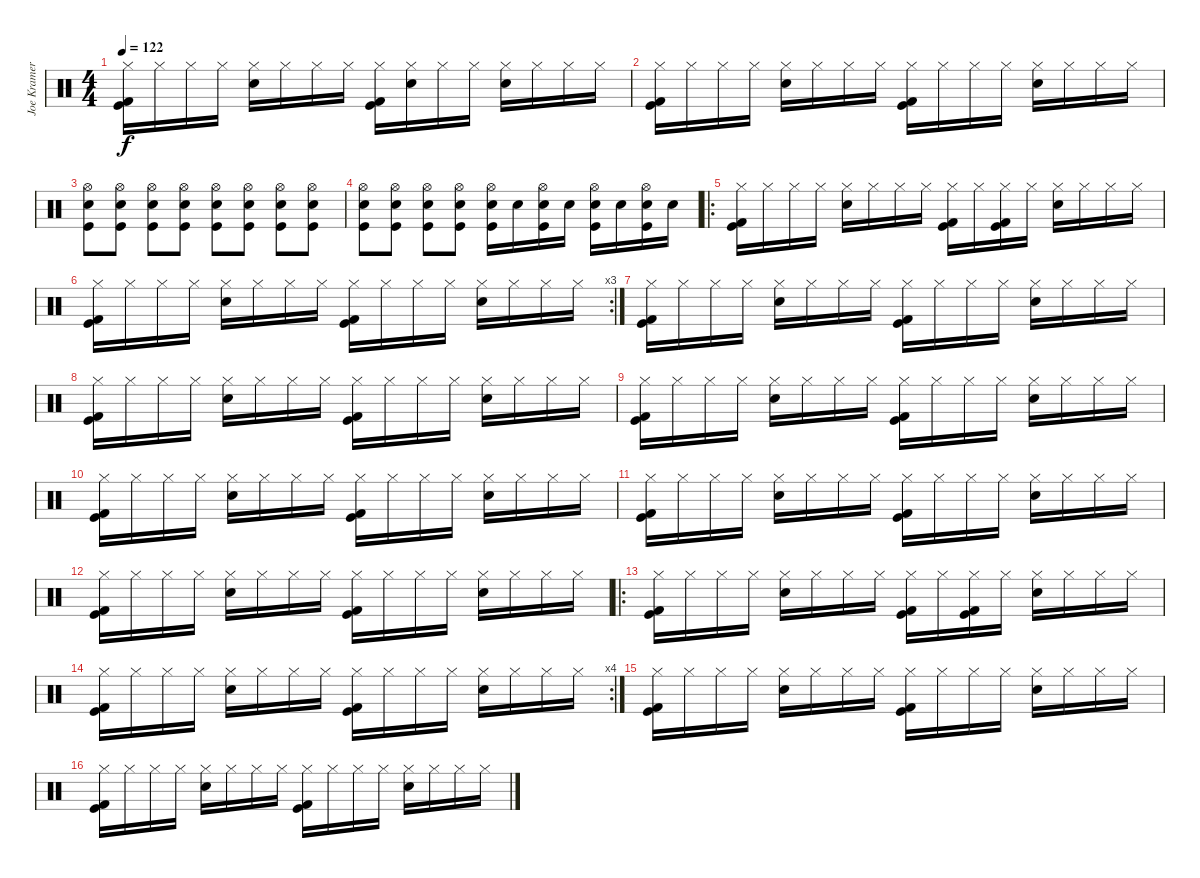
\track ("Joe Kramer" "Joe Kramer") {instrument percussion}
\staff {score}
\articulation defaults
\ts (4 4)
\tempo 122
\clef neutral
\ks c
("Hi-Hat (closed)" "Kick (hit)" "Kick (hit) 2").16{dy f} "Hi-Hat (closed)".16 "Hi-Hat (closed)".16 "Hi-Hat (closed)".16 ("Hi-Hat (closed)" "Snare (hit) 2").16 "Hi-Hat (closed)".16 "Hi-Hat (closed)".16 "Hi-Hat (closed)".16 ("Hi-Hat (closed)" "Kick (hit)" "Kick (hit) 2").16 ("Hi-Hat (closed)" "Snare (hit) 2").16 "Hi-Hat (closed)".16 "Hi-Hat (closed)".16 ("Hi-Hat (closed)" "Snare (hit) 2").16 "Hi-Hat (closed)".16 "Hi-Hat (closed)".16 "Hi-Hat (closed)".16 |
("Hi-Hat (closed)" "Kick (hit)" "Kick (hit) 2").16 "Hi-Hat (closed)".16 "Hi-Hat (closed)".16 "Hi-Hat (closed)".16 ("Hi-Hat (closed)" "Snare (hit) 2").16 "Hi-Hat (closed)".16 "Hi-Hat (closed)".16 "Hi-Hat (closed)".16 ("Hi-Hat (closed)" "Kick (hit)" "Kick (hit) 2").16 "Hi-Hat (closed)".16 "Hi-Hat (closed)".16 "Hi-Hat (closed)".16 ("Hi-Hat (closed)" "Snare (hit) 2").16 "Hi-Hat (closed)".16 "Hi-Hat (closed)".16 "Hi-Hat (closed)".16 |
("Kick (hit)" "Snare (hit) 2" "Hi-Hat (open)").8 ("Kick (hit)" "Snare (hit) 2" "Hi-Hat (open)").8 ("Kick (hit)" "Snare (hit) 2" "Hi-Hat (open)").8 ("Kick (hit)" "Snare (hit) 2" "Hi-Hat (open)").8 ("Kick (hit)" "Snare (hit) 2" "Hi-Hat (open)").8 ("Kick (hit)" "Snare (hit) 2" "Hi-Hat (open)").8 ("Kick (hit)" "Snare (hit) 2" "Hi-Hat (open)").8 ("Kick (hit)" "Snare (hit) 2" "Hi-Hat (open)").8 |
("Kick (hit)" "Snare (hit) 2" "Hi-Hat (open)").8 ("Kick (hit)" "Snare (hit) 2" "Hi-Hat (open)").8 ("Kick (hit)" "Snare (hit) 2" "Hi-Hat (open)").8 ("Kick (hit)" "Snare (hit) 2" "Hi-Hat (open)").8 ("Kick (hit)" "Snare (hit) 2" "Hi-Hat (open)").16 "Snare (hit) 2".16 ("Kick (hit)" "Snare (hit) 2" "Hi-Hat (open)").16 "Snare (hit) 2".16 ("Kick (hit)" "Snare (hit) 2" "Hi-Hat (open)").16 "Snare (hit) 2".16 ("Kick (hit)" "Snare (hit) 2" "Hi-Hat (open)").16 "Snare (hit) 2".16 |
\ro
("Hi-Hat (closed)" "Kick (hit)" "Kick (hit) 2").16 "Hi-Hat (closed)".16 "Hi-Hat (closed)".16 "Hi-Hat (closed)".16 ("Hi-Hat (closed)" "Snare (hit) 2").16 "Hi-Hat (closed)".16 "Hi-Hat (closed)".16 "Hi-Hat (closed)".16 ("Hi-Hat (closed)" "Kick (hit)" "Kick (hit) 2").16 "Hi-Hat (closed)".16 ("Hi-Hat (closed)" "Kick (hit)" "Kick (hit) 2").16 "Hi-Hat (closed)".16 ("Hi-Hat (closed)" "Snare (hit) 2").16 "Hi-Hat (closed)".16 "Hi-Hat (closed)".16 "Hi-Hat (closed)".16 |
\rc 3
("Hi-Hat (closed)" "Kick (hit)" "Kick (hit) 2").16 "Hi-Hat (closed)".16 "Hi-Hat (closed)".16 "Hi-Hat (closed)".16 ("Hi-Hat (closed)" "Snare (hit) 2").16 "Hi-Hat (closed)".16 "Hi-Hat (closed)".16 "Hi-Hat (closed)".16 ("Hi-Hat (closed)" "Kick (hit)" "Kick (hit) 2").16 "Hi-Hat (closed)".16 "Hi-Hat (closed)".16 "Hi-Hat (closed)".16 ("Hi-Hat (closed)" "Snare (hit) 2").16 "Hi-Hat (closed)".16 "Hi-Hat (closed)".16 "Hi-Hat (closed)".16 |
("Hi-Hat (closed)" "Kick (hit)" "Kick (hit) 2").16 "Hi-Hat (closed)".16 "Hi-Hat (closed)".16 "Hi-Hat (closed)".16 ("Hi-Hat (closed)" "Snare (hit) 2").16 "Hi-Hat (closed)".16 "Hi-Hat (closed)".16 "Hi-Hat (closed)".16 ("Hi-Hat (closed)" "Kick (hit)" "Kick (hit) 2").16 "Hi-Hat (closed)".16 "Hi-Hat (closed)".16 "Hi-Hat (closed)".16 ("Hi-Hat (closed)" "Snare (hit) 2").16 "Hi-Hat (closed)".16 "Hi-Hat (closed)".16 "Hi-Hat (closed)".16 |
("Hi-Hat (closed)" "Kick (hit)" "Kick (hit) 2").16 "Hi-Hat (closed)".16 "Hi-Hat (closed)".16 "Hi-Hat (closed)".16 ("Hi-Hat (closed)" "Snare (hit) 2").16 "Hi-Hat (closed)".16 "Hi-Hat (closed)".16 "Hi-Hat (closed)".16 ("Hi-Hat (closed)" "Kick (hit)" "Kick (hit) 2").16 "Hi-Hat (closed)".16 "Hi-Hat (closed)".16 "Hi-Hat (closed)".16 ("Hi-Hat (closed)" "Snare (hit) 2").16 "Hi-Hat (closed)".16 "Hi-Hat (closed)".16 "Hi-Hat (closed)".16 |
("Hi-Hat (closed)" "Kick (hit)" "Kick (hit) 2").16 "Hi-Hat (closed)".16 "Hi-Hat (closed)".16 "Hi-Hat (closed)".16 ("Hi-Hat (closed)" "Snare (hit) 2").16 "Hi-Hat (closed)".16 "Hi-Hat (closed)".16 "Hi-Hat (closed)".16 ("Hi-Hat (closed)" "Kick (hit)" "Kick (hit) 2").16 "Hi-Hat (closed)".16 "Hi-Hat (closed)".16 "Hi-Hat (closed)".16 ("Hi-Hat (closed)" "Snare (hit) 2").16 "Hi-Hat (closed)".16 "Hi-Hat (closed)".16 "Hi-Hat (closed)".16 |
("Hi-Hat (closed)" "Kick (hit)" "Kick (hit) 2").16 "Hi-Hat (closed)".16 "Hi-Hat (closed)".16 "Hi-Hat (closed)".16 ("Hi-Hat (closed)" "Snare (hit) 2").16 "Hi-Hat (closed)".16 "Hi-Hat (closed)".16 "Hi-Hat (closed)".16 ("Hi-Hat (closed)" "Kick (hit)" "Kick (hit) 2").16 "Hi-Hat (closed)".16 "Hi-Hat (closed)".16 "Hi-Hat (closed)".16 ("Hi-Hat (closed)" "Snare (hit) 2").16 "Hi-Hat (closed)".16 "Hi-Hat (closed)".16 "Hi-Hat (closed)".16 |
("Hi-Hat (closed)" "Kick (hit)" "Kick (hit) 2").16 "Hi-Hat (closed)".16 "Hi-Hat (closed)".16 "Hi-Hat (closed)".16 ("Hi-Hat (closed)" "Snare (hit) 2").16 "Hi-Hat (closed)".16 "Hi-Hat (closed)".16 "Hi-Hat (closed)".16 ("Hi-Hat (closed)" "Kick (hit)" "Kick (hit) 2").16 "Hi-Hat (closed)".16 "Hi-Hat (closed)".16 "Hi-Hat (closed)".16 ("Hi-Hat (closed)" "Snare (hit) 2").16 "Hi-Hat (closed)".16 "Hi-Hat (closed)".16 "Hi-Hat (closed)".16 |
("Hi-Hat (closed)" "Kick (hit)" "Kick (hit) 2").16 "Hi-Hat (closed)".16 "Hi-Hat (closed)".16 "Hi-Hat (closed)".16 ("Hi-Hat (closed)" "Snare (hit) 2").16 "Hi-Hat (closed)".16 "Hi-Hat (closed)".16 "Hi-Hat (closed)".16 ("Hi-Hat (closed)" "Kick (hit)" "Kick (hit) 2").16 "Hi-Hat (closed)".16 "Hi-Hat (closed)".16 "Hi-Hat (closed)".16 ("Hi-Hat (closed)" "Snare (hit) 2").16 "Hi-Hat (closed)".16 "Hi-Hat (closed)".16 "Hi-Hat (closed)".16 |
\ro
("Hi-Hat (closed)" "Kick (hit)" "Kick (hit) 2").16 "Hi-Hat (closed)".16 "Hi-Hat (closed)".16 "Hi-Hat (closed)".16 ("Hi-Hat (closed)" "Snare (hit) 2").16 "Hi-Hat (closed)".16 "Hi-Hat (closed)".16 "Hi-Hat (closed)".16 ("Hi-Hat (closed)" "Kick (hit)" "Kick (hit) 2").16 "Hi-Hat (closed)".16 ("Hi-Hat (closed)" "Kick (hit)" "Kick (hit) 2").16 "Hi-Hat (closed)".16 ("Hi-Hat (closed)" "Snare (hit) 2").16 "Hi-Hat (closed)".16 "Hi-Hat (closed)".16 "Hi-Hat (closed)".16 |
\rc 4
("Hi-Hat (closed)" "Kick (hit)" "Kick (hit) 2").16 "Hi-Hat (closed)".16 "Hi-Hat (closed)".16 "Hi-Hat (closed)".16 ("Hi-Hat (closed)" "Snare (hit) 2").16 "Hi-Hat (closed)".16 "Hi-Hat (closed)".16 "Hi-Hat (closed)".16 ("Hi-Hat (closed)" "Kick (hit)" "Kick (hit) 2").16 "Hi-Hat (closed)".16 "Hi-Hat (closed)".16 "Hi-Hat (closed)".16 ("Hi-Hat (closed)" "Snare (hit) 2").16 "Hi-Hat (closed)".16 "Hi-Hat (closed)".16 "Hi-Hat (closed)".16 |
("Hi-Hat (closed)" "Kick (hit)" "Kick (hit) 2").16 "Hi-Hat (closed)".16 "Hi-Hat (closed)".16 "Hi-Hat (closed)".16 ("Hi-Hat (closed)" "Snare (hit) 2").16 "Hi-Hat (closed)".16 "Hi-Hat (closed)".16 "Hi-Hat (closed)".16 ("Hi-Hat (closed)" "Kick (hit)" "Kick (hit) 2").16 "Hi-Hat (closed)".16 "Hi-Hat (closed)".16 "Hi-Hat (closed)".16 ("Hi-Hat (closed)" "Snare (hit) 2").16 "Hi-Hat (closed)".16 "Hi-Hat (closed)".16 "Hi-Hat (closed)".16 |
("Hi-Hat (closed)" "Kick (hit)" "Kick (hit) 2").16 "Hi-Hat (closed)".16 "Hi-Hat (closed)".16 "Hi-Hat (closed)".16 ("Hi-Hat (closed)" "Snare (hit) 2").16 "Hi-Hat (closed)".16 "Hi-Hat (closed)".16 "Hi-Hat (closed)".16 ("Hi-Hat (closed)" "Kick (hit)" "Kick (hit) 2").16 "Hi-Hat (closed)".16 "Hi-Hat (closed)".16 "Hi-Hat (closed)".16 ("Hi-Hat (closed)" "Snare (hit) 2").16 "Hi-Hat (closed)".16 "Hi-Hat (closed)".16 "Hi-Hat (closed)".16
